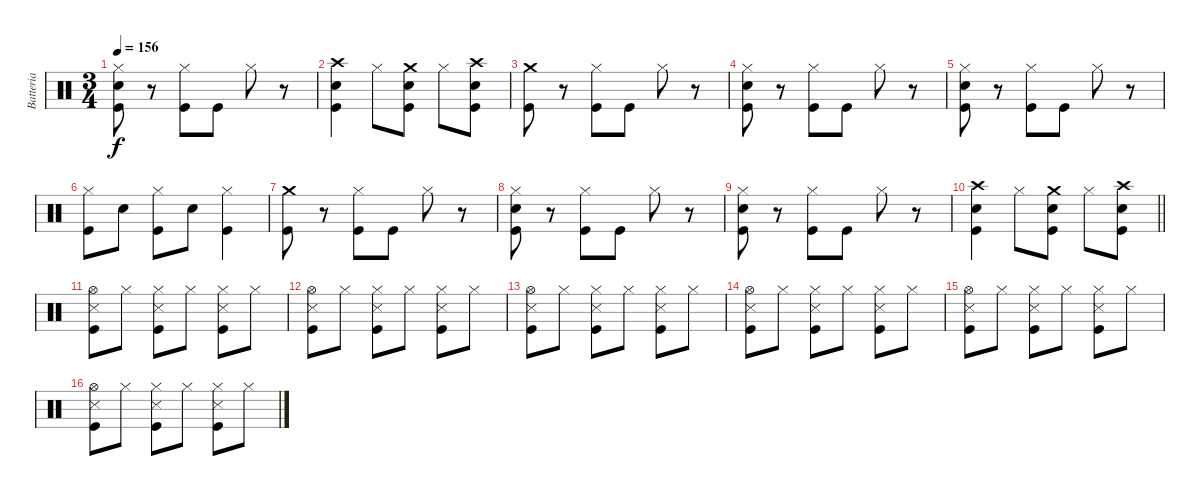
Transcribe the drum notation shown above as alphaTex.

\track ("Batteria" "Batteria") {instrument percussion}
\staff {score}
\articulation defaults
\ts (3 4)
\tempo 156
\clef neutral
\ks c
("Hi-Hat (closed)" "Electric Snare (hit)" "Kick (hit)").8{dy f} r.8 ("Hi-Hat (closed)" "Kick (hit)").8 "Kick (hit)".8 "Hi-Hat (closed)".8 r.8 |
("Crash high (hit)" "Electric Snare (hit)" "Kick (hit)").4 "Hi-Hat (closed)".8 ("Crash medium (hit)" "Electric Snare (hit)" "Kick (hit)").8 "Hi-Hat (closed)".8 ("Crash high (hit)" "Electric Snare (hit)" "Kick (hit)").8 |
("Crash medium (hit)" "Kick (hit)").8 r.8 ("Hi-Hat (closed)" "Kick (hit)").8 "Kick (hit)".8 "Hi-Hat (closed)".8 r.8 |
("Hi-Hat (closed)" "Electric Snare (hit)" "Kick (hit)").8 r.8 ("Hi-Hat (closed)" "Kick (hit)").8 "Kick (hit)".8 "Hi-Hat (closed)".8 r.8 |
("Hi-Hat (closed)" "Electric Snare (hit)" "Kick (hit)").8 r.8 ("Hi-Hat (closed)" "Kick (hit)").8 "Kick (hit)".8 "Hi-Hat (closed)".8 r.8 |
("Hi-Hat (closed)" "Kick (hit)").8 "Electric Snare (hit)".8 ("Hi-Hat (closed)" "Kick (hit)").8 "Electric Snare (hit)".8 ("Hi-Hat (closed)" "Kick (hit)").4 |
("Crash medium (hit)" "Kick (hit)").8 r.8 ("Hi-Hat (closed)" "Kick (hit)").8 "Kick (hit)".8 "Hi-Hat (closed)".8 r.8 |
("Hi-Hat (closed)" "Electric Snare (hit)" "Kick (hit)").8 r.8 ("Hi-Hat (closed)" "Kick (hit)").8 "Kick (hit)".8 "Hi-Hat (closed)".8 r.8 |
("Hi-Hat (closed)" "Electric Snare (hit)" "Kick (hit)").8 r.8 ("Hi-Hat (closed)" "Kick (hit)").8 "Kick (hit)".8 "Hi-Hat (closed)".8 r.8 |
\barLineRight lightlight
("Crash high (hit)" "Electric Snare (hit)" "Kick (hit)").4 "Hi-Hat (closed)".8 ("Crash medium (hit)" "Electric Snare (hit)" "Kick (hit)").8 "Hi-Hat (closed)".8 ("Crash high (hit)" "Electric Snare (hit)" "Kick (hit)").8 |
\section ("" "")
("Hi-Hat (open)" "Kick (hit)" "Snare (side stick) 3").8 "Hi-Hat (closed)".8 ("Hi-Hat (closed)" "Kick (hit)" "Snare (side stick) 3").8 "Hi-Hat (closed)".8 ("Hi-Hat (closed)" "Kick (hit)" "Snare (side stick) 3").8 "Hi-Hat (closed)".8 |
("Hi-Hat (open)" "Kick (hit)" "Snare (side stick) 3").8 "Hi-Hat (closed)".8 ("Hi-Hat (closed)" "Kick (hit)" "Snare (side stick) 3").8 "Hi-Hat (closed)".8 ("Hi-Hat (closed)" "Kick (hit)" "Snare (side stick) 3").8 "Hi-Hat (closed)".8 |
("Hi-Hat (open)" "Kick (hit)" "Snare (side stick) 3").8 "Hi-Hat (closed)".8 ("Hi-Hat (closed)" "Kick (hit)" "Snare (side stick) 3").8 "Hi-Hat (closed)".8 ("Hi-Hat (closed)" "Kick (hit)" "Snare (side stick) 3").8 "Hi-Hat (closed)".8 |
("Hi-Hat (open)" "Kick (hit)" "Snare (side stick) 3").8 "Hi-Hat (closed)".8 ("Hi-Hat (closed)" "Kick (hit)" "Snare (side stick) 3").8 "Hi-Hat (closed)".8 ("Hi-Hat (closed)" "Kick (hit)" "Snare (side stick) 3").8 "Hi-Hat (closed)".8 |
("Hi-Hat (open)" "Kick (hit)" "Snare (side stick) 3").8 "Hi-Hat (closed)".8 ("Hi-Hat (closed)" "Kick (hit)" "Snare (side stick) 3").8 "Hi-Hat (closed)".8 ("Hi-Hat (closed)" "Kick (hit)" "Snare (side stick) 3").8 "Hi-Hat (closed)".8 |
("Hi-Hat (open)" "Kick (hit)" "Snare (side stick) 3").8 "Hi-Hat (closed)".8 ("Hi-Hat (closed)" "Kick (hit)" "Snare (side stick) 3").8 "Hi-Hat (closed)".8 ("Hi-Hat (closed)" "Kick (hit)" "Snare (side stick) 3").8 "Hi-Hat (closed)".8
